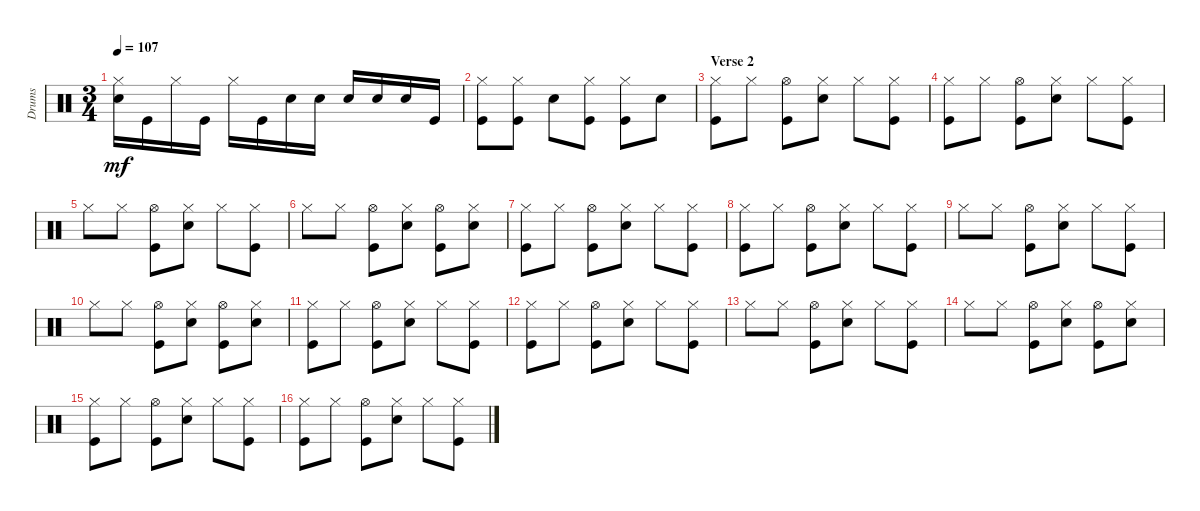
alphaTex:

\track ("Drums" "Drums") {instrument percussion}
\staff {score}
\articulation defaults
\ts (3 4)
\tempo 107
\clef neutral
\ks c
("Snare (hit) 2" "Hi-Hat (closed)").16{dy mf} "Kick (hit)".16 "Hi-Hat (closed)".16 "Kick (hit)".16 "Hi-Hat (closed)".16 "Kick (hit)".16 "Snare (hit) 2".16 "Snare (hit) 2".16 "Snare (hit) 2".16 "Snare (hit) 2".16 "Snare (hit) 2".16 "Kick (hit)".16 |
("Kick (hit)" "Hi-Hat (closed)").8 ("Kick (hit)" "Hi-Hat (closed)").8 "Snare (hit) 2".8 ("Kick (hit)" "Hi-Hat (closed)").8 ("Kick (hit)" "Hi-Hat (closed)").8 "Snare (hit) 2".8 |
\section ("" "Verse 2")
("Hi-Hat (closed)" "Kick (hit)").8 "Hi-Hat (closed)".8 ("Hi-Hat (open)" "Kick (hit)").8 ("Snare (hit) 2" "Hi-Hat (closed)").8 "Hi-Hat (closed)".8 ("Hi-Hat (closed)" "Kick (hit)").8 |
("Hi-Hat (closed)" "Kick (hit)").8 "Hi-Hat (closed)".8 ("Hi-Hat (open)" "Kick (hit)").8 ("Hi-Hat (closed)" "Snare (hit) 2").8 "Hi-Hat (closed)".8 ("Hi-Hat (closed)" "Kick (hit)").8 |
"Hi-Hat (closed)".8 "Hi-Hat (closed)".8 ("Hi-Hat (open)" "Kick (hit)").8 ("Snare (hit) 2" "Hi-Hat (closed)").8 "Hi-Hat (closed)".8 ("Kick (hit)" "Hi-Hat (closed)").8 |
"Hi-Hat (closed)".8 "Hi-Hat (closed)".8 ("Hi-Hat (open)" "Kick (hit)").8 ("Hi-Hat (closed)" "Snare (hit) 2").8 ("Hi-Hat (open)" "Kick (hit)").8 ("Hi-Hat (closed)" "Snare (hit) 2").8 |
("Hi-Hat (closed)" "Kick (hit)").8 "Hi-Hat (closed)".8 ("Hi-Hat (open)" "Kick (hit)").8 ("Snare (hit) 2" "Hi-Hat (closed)").8 "Hi-Hat (closed)".8 ("Hi-Hat (closed)" "Kick (hit)").8 |
("Hi-Hat (closed)" "Kick (hit)").8 "Hi-Hat (closed)".8 ("Hi-Hat (open)" "Kick (hit)").8 ("Hi-Hat (closed)" "Snare (hit) 2").8 "Hi-Hat (closed)".8 ("Hi-Hat (closed)" "Kick (hit)").8 |
"Hi-Hat (closed)".8 "Hi-Hat (closed)".8 ("Hi-Hat (open)" "Kick (hit)").8 ("Snare (hit) 2" "Hi-Hat (closed)").8 "Hi-Hat (closed)".8 ("Kick (hit)" "Hi-Hat (closed)").8 |
"Hi-Hat (closed)".8 "Hi-Hat (closed)".8 ("Hi-Hat (open)" "Kick (hit)").8 ("Hi-Hat (closed)" "Snare (hit) 2").8 ("Hi-Hat (open)" "Kick (hit)").8 ("Hi-Hat (closed)" "Snare (hit) 2").8 |
("Hi-Hat (closed)" "Kick (hit)").8 "Hi-Hat (closed)".8 ("Hi-Hat (open)" "Kick (hit)").8 ("Snare (hit) 2" "Hi-Hat (closed)").8 "Hi-Hat (closed)".8 ("Hi-Hat (closed)" "Kick (hit)").8 |
("Hi-Hat (closed)" "Kick (hit)").8 "Hi-Hat (closed)".8 ("Hi-Hat (open)" "Kick (hit)").8 ("Hi-Hat (closed)" "Snare (hit) 2").8 "Hi-Hat (closed)".8 ("Hi-Hat (closed)" "Kick (hit)").8 |
"Hi-Hat (closed)".8 "Hi-Hat (closed)".8 ("Hi-Hat (open)" "Kick (hit)").8 ("Snare (hit) 2" "Hi-Hat (closed)").8 "Hi-Hat (closed)".8 ("Kick (hit)" "Hi-Hat (closed)").8 |
"Hi-Hat (closed)".8 "Hi-Hat (closed)".8 ("Hi-Hat (open)" "Kick (hit)").8 ("Hi-Hat (closed)" "Snare (hit) 2").8 ("Hi-Hat (open)" "Kick (hit)").8 ("Hi-Hat (closed)" "Snare (hit) 2").8 |
("Hi-Hat (closed)" "Kick (hit)").8 "Hi-Hat (closed)".8 ("Hi-Hat (open)" "Kick (hit)").8 ("Snare (hit) 2" "Hi-Hat (closed)").8 "Hi-Hat (closed)".8 ("Hi-Hat (closed)" "Kick (hit)").8 |
("Hi-Hat (closed)" "Kick (hit)").8 "Hi-Hat (closed)".8 ("Hi-Hat (open)" "Kick (hit)").8 ("Hi-Hat (closed)" "Snare (hit) 2").8 "Hi-Hat (closed)".8 ("Hi-Hat (closed)" "Kick (hit)").8
